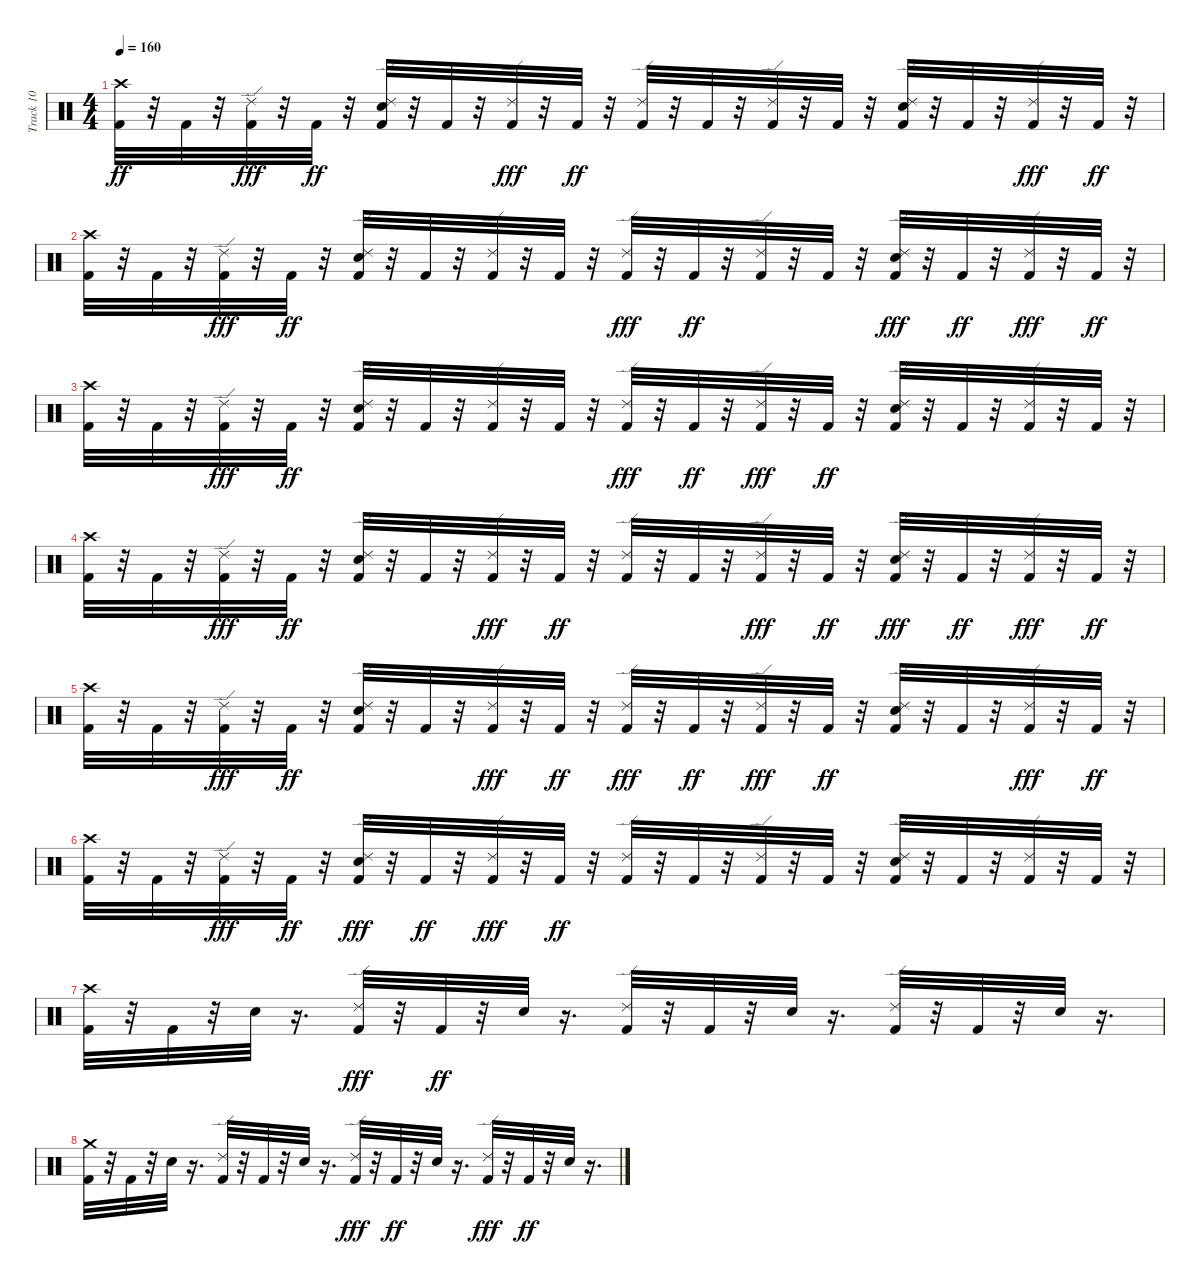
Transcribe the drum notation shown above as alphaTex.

\track ("Track 10" "Track 10") {instrument percussion}
\staff {score}
\articulation defaults
\ts (4 4)
\tempo 160
\clef neutral
\ks c
("Crash high (hit)" "Kick (hit) 2").32{dy ff} r.32 "Kick (hit) 2".32 r.32 ("Kick (hit) 2" "Ride (edge) 2").32{dy fff} r.32 "Kick (hit) 2".32{dy ff} r.32 ("Electric Snare (hit)" "Ride (edge) 2" "Kick (hit) 2").32 r.32 "Kick (hit) 2".32 r.32 ("Kick (hit) 2" "Ride (edge) 2").32{dy fff} r.32 "Kick (hit) 2".32{dy ff} r.32 ("Ride (edge) 2" "Kick (hit) 2").32 r.32 "Kick (hit) 2".32 r.32 ("Ride (edge) 2" "Kick (hit) 2").32 r.32 "Kick (hit) 2".32 r.32 ("Ride (edge) 2" "Kick (hit) 2" "Electric Snare (hit)").32 r.32 "Kick (hit) 2".32 r.32 ("Kick (hit) 2" "Ride (edge) 2").32{dy fff} r.32 "Kick (hit) 2".32{dy ff} r.32 |
("Crash high (hit)" "Kick (hit) 2").32 r.32 "Kick (hit) 2".32 r.32 ("Kick (hit) 2" "Ride (edge) 2").32{dy fff} r.32 "Kick (hit) 2".32{dy ff} r.32 ("Kick (hit) 2" "Ride (edge) 2" "Electric Snare (hit)").32 r.32 "Kick (hit) 2".32 r.32 ("Ride (edge) 2" "Kick (hit) 2").32 r.32 "Kick (hit) 2".32 r.32 ("Kick (hit) 2" "Ride (edge) 2").32{dy fff} r.32 "Kick (hit) 2".32{dy ff} r.32 ("Ride (edge) 2" "Kick (hit) 2").32 r.32 "Kick (hit) 2".32 r.32 ("Kick (hit) 2" "Electric Snare (hit)" "Ride (edge) 2").32{dy fff} r.32 "Kick (hit) 2".32{dy ff} r.32 ("Kick (hit) 2" "Ride (edge) 2").32{dy fff} r.32 "Kick (hit) 2".32{dy ff} r.32 |
("Crash high (hit)" "Kick (hit) 2").32 r.32 "Kick (hit) 2".32 r.32 ("Kick (hit) 2" "Ride (edge) 2").32{dy fff} r.32 "Kick (hit) 2".32{dy ff} r.32 ("Ride (edge) 2" "Kick (hit) 2" "Electric Snare (hit)").32 r.32 "Kick (hit) 2".32 r.32 ("Ride (edge) 2" "Kick (hit) 2").32 r.32 "Kick (hit) 2".32 r.32 ("Kick (hit) 2" "Ride (edge) 2").32{dy fff} r.32 "Kick (hit) 2".32{dy ff} r.32 ("Kick (hit) 2" "Ride (edge) 2").32{dy fff} r.32 "Kick (hit) 2".32{dy ff} r.32 ("Ride (edge) 2" "Kick (hit) 2" "Electric Snare (hit)").32 r.32 "Kick (hit) 2".32 r.32 ("Ride (edge) 2" "Kick (hit) 2").32 r.32 "Kick (hit) 2".32 r.32 |
("Crash high (hit)" "Kick (hit) 2").32 r.32 "Kick (hit) 2".32 r.32 ("Kick (hit) 2" "Ride (edge) 2").32{dy fff} r.32 "Kick (hit) 2".32{dy ff} r.32 ("Electric Snare (hit)" "Ride (edge) 2" "Kick (hit) 2").32 r.32 "Kick (hit) 2".32 r.32 ("Kick (hit) 2" "Ride (edge) 2").32{dy fff} r.32 "Kick (hit) 2".32{dy ff} r.32 ("Ride (edge) 2" "Kick (hit) 2").32 r.32 "Kick (hit) 2".32 r.32 ("Kick (hit) 2" "Ride (edge) 2").32{dy fff} r.32 "Kick (hit) 2".32{dy ff} r.32 ("Kick (hit) 2" "Electric Snare (hit)" "Ride (edge) 2").32{dy fff} r.32 "Kick (hit) 2".32{dy ff} r.32 ("Kick (hit) 2" "Ride (edge) 2").32{dy fff} r.32 "Kick (hit) 2".32{dy ff} r.32 |
("Kick (hit) 2" "Crash high (hit)").32 r.32 "Kick (hit) 2".32 r.32 ("Kick (hit) 2" "Ride (edge) 2").32{dy fff} r.32 "Kick (hit) 2".32{dy ff} r.32 ("Ride (edge) 2" "Kick (hit) 2" "Electric Snare (hit)").32 r.32 "Kick (hit) 2".32 r.32 ("Kick (hit) 2" "Ride (edge) 2").32{dy fff} r.32 "Kick (hit) 2".32{dy ff} r.32 ("Kick (hit) 2" "Ride (edge) 2").32{dy fff} r.32 "Kick (hit) 2".32{dy ff} r.32 ("Kick (hit) 2" "Ride (edge) 2").32{dy fff} r.32 "Kick (hit) 2".32{dy ff} r.32 ("Ride (edge) 2" "Electric Snare (hit)" "Kick (hit) 2").32 r.32 "Kick (hit) 2".32 r.32 ("Kick (hit) 2" "Ride (edge) 2").32{dy fff} r.32 "Kick (hit) 2".32{dy ff} r.32 |
("Kick (hit) 2" "Crash high (hit)").32 r.32 "Kick (hit) 2".32 r.32 ("Kick (hit) 2" "Ride (edge) 2").32{dy fff} r.32 "Kick (hit) 2".32{dy ff} r.32 ("Kick (hit) 2" "Electric Snare (hit)" "Ride (edge) 2").32{dy fff} r.32 "Kick (hit) 2".32{dy ff} r.32 ("Kick (hit) 2" "Ride (edge) 2").32{dy fff} r.32 "Kick (hit) 2".32{dy ff} r.32 ("Ride (edge) 2" "Kick (hit) 2").32 r.32 "Kick (hit) 2".32 r.32 ("Ride (edge) 2" "Kick (hit) 2").32 r.32 "Kick (hit) 2".32 r.32 ("Ride (edge) 2" "Kick (hit) 2" "Electric Snare (hit)").32 r.32 "Kick (hit) 2".32 r.32 ("Ride (edge) 2" "Kick (hit) 2").32 r.32 "Kick (hit) 2".32 r.32 |
("Kick (hit) 2" "Crash high (hit)").32 r.32 "Kick (hit) 2".32 r.32 "Electric Snare (hit)".32 r.16{d} ("Kick (hit) 2" "Ride (edge) 2").32{dy fff} r.32 "Kick (hit) 2".32{dy ff} r.32 "Electric Snare (hit)".32 r.16{d} ("Ride (edge) 2" "Kick (hit) 2").32 r.32 "Kick (hit) 2".32 r.32 "Electric Snare (hit)".32 r.16{d} ("Ride (edge) 2" "Kick (hit) 2").32 r.32 "Kick (hit) 2".32 r.32 "Electric Snare (hit)".32 r.16{d} |
("Kick (hit) 2" "Crash medium (hit)").32 r.32 "Kick (hit) 2".32 r.32 "Electric Snare (hit)".32 r.16{d} ("Ride (edge) 2" "Kick (hit) 2").32 r.32 "Kick (hit) 2".32 r.32 "Electric Snare (hit)".32 r.16{d} ("Kick (hit) 2" "Ride (edge) 2").32{dy fff} r.32 "Kick (hit) 2".32{dy ff} r.32 "Electric Snare (hit)".32 r.16{d} ("Kick (hit) 2" "Ride (edge) 2").32{dy fff} r.32 "Kick (hit) 2".32{dy ff} r.32 "Electric Snare (hit)".32 r.16{d}
